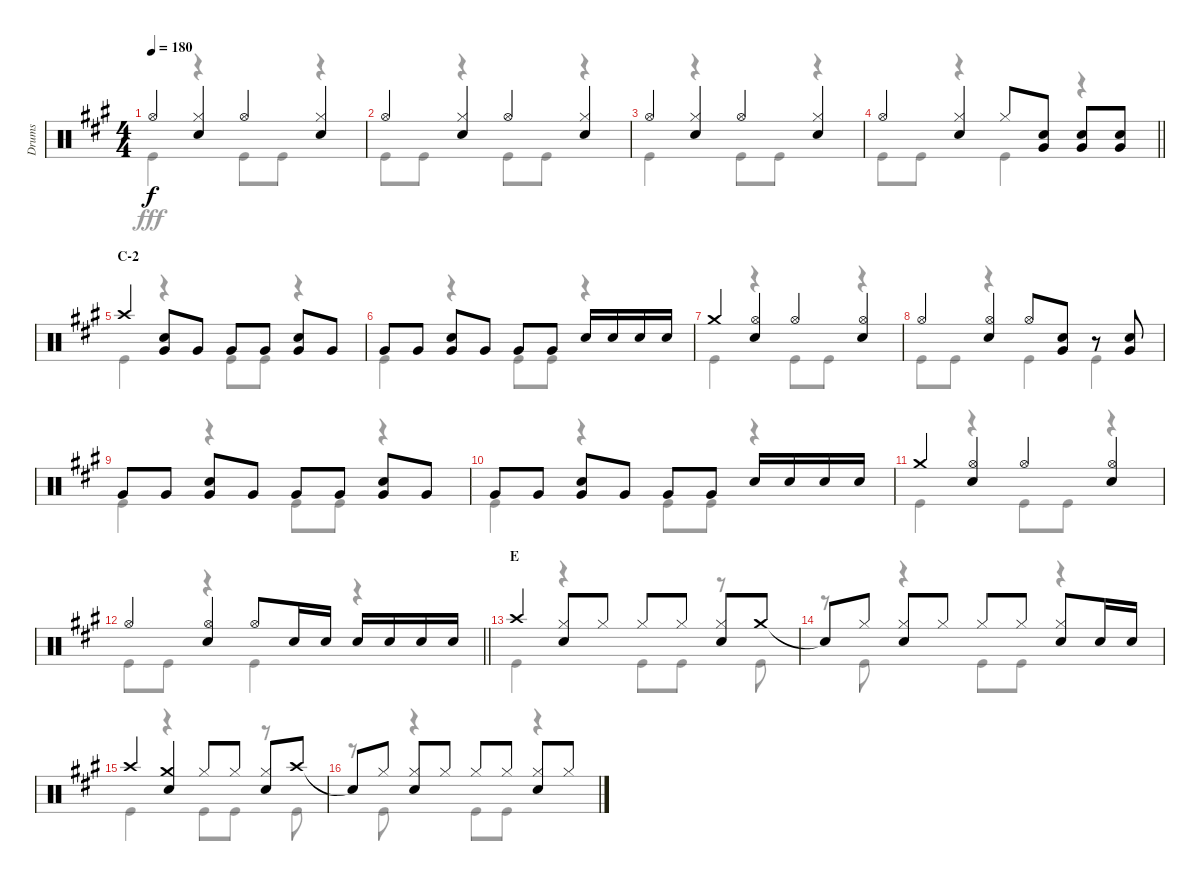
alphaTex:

\track ("Drums" "Drums") {instrument percussion}
\staff {score}
\articulation defaults
\voice
\ts (4 4)
\tempo 180
\clef neutral
\ks a "Hi-Hat (open)".4{dy f}
("Hi-Hat (closed)" "Snare (hit) 2").4 "Hi-Hat (open)".4 ("Hi-Hat (closed)" "Snare (hit) 2").4 |
"Hi-Hat (open)".4 ("Hi-Hat (closed)" "Snare (hit) 2").4 "Hi-Hat (open)".4 ("Hi-Hat (closed)" "Snare (hit) 2").4 |
"Hi-Hat (open)".4 ("Hi-Hat (closed)" "Snare (hit) 2").4 "Hi-Hat (open)".4 ("Hi-Hat (closed)" "Snare (hit) 2").4 |
\barLineRight lightlight "Hi-Hat (open)".4
("Hi-Hat (closed)" "Snare (hit) 2").4 "Hi-Hat (closed)".8 ("Snare (hit) 2" "Very Low Tom (hit)").8 ("Snare (hit) 2" "Very Low Tom (hit)").8 ("Snare (hit) 2" "Very Low Tom (hit)").8 |
\section ("" "C-2")
"Crash high (hit)".4 ("Snare (hit) 2" "Very Low Tom (hit)").8 "Very Low Tom (hit)".8 "Very Low Tom (hit)".8 "Very Low Tom (hit)".8 ("Snare (hit) 2" "Very Low Tom (hit)").8 "Very Low Tom (hit)".8 |
"Very Low Tom (hit)".8 "Very Low Tom (hit)".8 ("Snare (hit) 2" "Very Low Tom (hit)").8 "Very Low Tom (hit)".8 "Very Low Tom (hit)".8 "Very Low Tom (hit)".8 "Snare (hit) 2".16 "Snare (hit) 2".16 "Snare (hit) 2".16 "Snare (hit) 2".16 |
"Crash medium (hit)".4 ("Hi-Hat (open)" "Snare (hit) 2").4 "Hi-Hat (open)".4 ("Hi-Hat (open)" "Snare (hit) 2").4 |
"Hi-Hat (open)".4 ("Hi-Hat (open)" "Snare (hit) 2").4 "Hi-Hat (open)".8 ("Snare (hit) 2" "Very Low Tom (hit)").8 r.8 ("Snare (hit) 2" "Very Low Tom (hit)").8 |
"Very Low Tom (hit)".8 "Very Low Tom (hit)".8 ("Snare (hit) 2" "Very Low Tom (hit)").8 "Very Low Tom (hit)".8 "Very Low Tom (hit)".8 "Very Low Tom (hit)".8 ("Snare (hit) 2" "Very Low Tom (hit)").8 "Very Low Tom (hit)".8 |
"Very Low Tom (hit)".8 "Very Low Tom (hit)".8 ("Snare (hit) 2" "Very Low Tom (hit)").8 "Very Low Tom (hit)".8 "Very Low Tom (hit)".8 "Very Low Tom (hit)".8 "Snare (hit) 2".16 "Snare (hit) 2".16 "Snare (hit) 2".16 "Snare (hit) 2".16 |
"Crash medium (hit)".4 ("Hi-Hat (open)" "Snare (hit) 2").4 "Hi-Hat (open)".4 ("Hi-Hat (open)" "Snare (hit) 2").4 |
\barLineRight lightlight "Hi-Hat (open)".4
("Hi-Hat (open)" "Snare (hit) 2").4 "Hi-Hat (open)".8 "Snare (hit) 2".16 "Snare (hit) 2".16 "Snare (hit) 2".16 "Snare (hit) 2".16 "Snare (hit) 2".16 "Snare (hit) 2".16 |
\section ("" "E")
"Crash high (hit)".4 ("Hi-Hat (closed)" "Snare (hit) 2").8 "Hi-Hat (closed)".8 "Hi-Hat (closed)".8 "Hi-Hat (closed)".8 ("Hi-Hat (closed)" "Snare (hit) 2").8 "Crash medium (hit)".8 |
"Snare (hit)"{t}.8 "Hi-Hat (closed)".8 ("Hi-Hat (closed)" "Snare (hit) 2").8 "Hi-Hat (closed)".8 "Hi-Hat (closed)".8 "Hi-Hat (closed)".8 ("Hi-Hat (closed)" "Snare (hit) 2").8 "Snare (hit) 2".16 "Snare (hit) 2".16 |
"Crash high (hit)".4 ("Crash medium (hit)" "Snare (hit) 2").4 "Hi-Hat (closed)".8 "Hi-Hat (closed)".8 ("Hi-Hat (closed)" "Snare (hit) 2").8 "Crash high (hit)".8 |
"Snare (hit)"{t}.8 "Hi-Hat (closed)".8 ("Hi-Hat (closed)" "Snare (hit) 2").8 "Hi-Hat (closed)".8 "Hi-Hat (closed)".8 "Hi-Hat (closed)".8 ("Hi-Hat (closed)" "Snare (hit) 2").8 "Hi-Hat (closed)".8
\voice
\clef neutral
\ottava regular
\simile none
\ks a "Kick (hit)".4{dy fff}
r.4 "Kick (hit)".8 "Kick (hit)".8 r.4 |
"Kick (hit)".8 "Kick (hit)".8 r.4 "Kick (hit)".8 "Kick (hit)".8 r.4 |
"Kick (hit)".4 r.4 "Kick (hit)".8 "Kick (hit)".8 r.4 |
\barLineRight lightlight "Kick (hit)".8 "Kick (hit)".8
r.4 "Kick (hit)".4 r.4 |
"Kick (hit)".4 r.4 "Kick (hit)".8 "Kick (hit)".8 r.4 |
"Kick (hit)".4 r.4 "Kick (hit)".8 "Kick (hit)".8 r.4 |
"Kick (hit)".4 r.4 "Kick (hit)".8 "Kick (hit)".8 r.4 |
"Kick (hit)".8 "Kick (hit)".8 r.4 "Kick (hit)".4 "Kick (hit)".4 |
"Kick (hit)".4 r.4 "Kick (hit)".8 "Kick (hit)".8 r.4 |
"Kick (hit)".4 r.4 "Kick (hit)".8 "Kick (hit)".8 r.4 |
"Kick (hit)".4 r.4 "Kick (hit)".8 "Kick (hit)".8 r.4 |
\barLineRight lightlight "Kick (hit)".8 "Kick (hit)".8
r.4 "Kick (hit)".4 r.4 |
"Kick (hit)".4 r.4 "Kick (hit)".8 "Kick (hit)".8 r.8 "Kick (hit)".8 |
r.8 "Kick (hit)".8 r.4 "Kick (hit)".8 "Kick (hit)".8 r.4 |
"Kick (hit)".4 r.4 "Kick (hit)".8 "Kick (hit)".8 r.8 "Kick (hit)".8 |
r.8 "Kick (hit)".8 r.4 "Kick (hit)".8 "Kick (hit)".8 r.4
